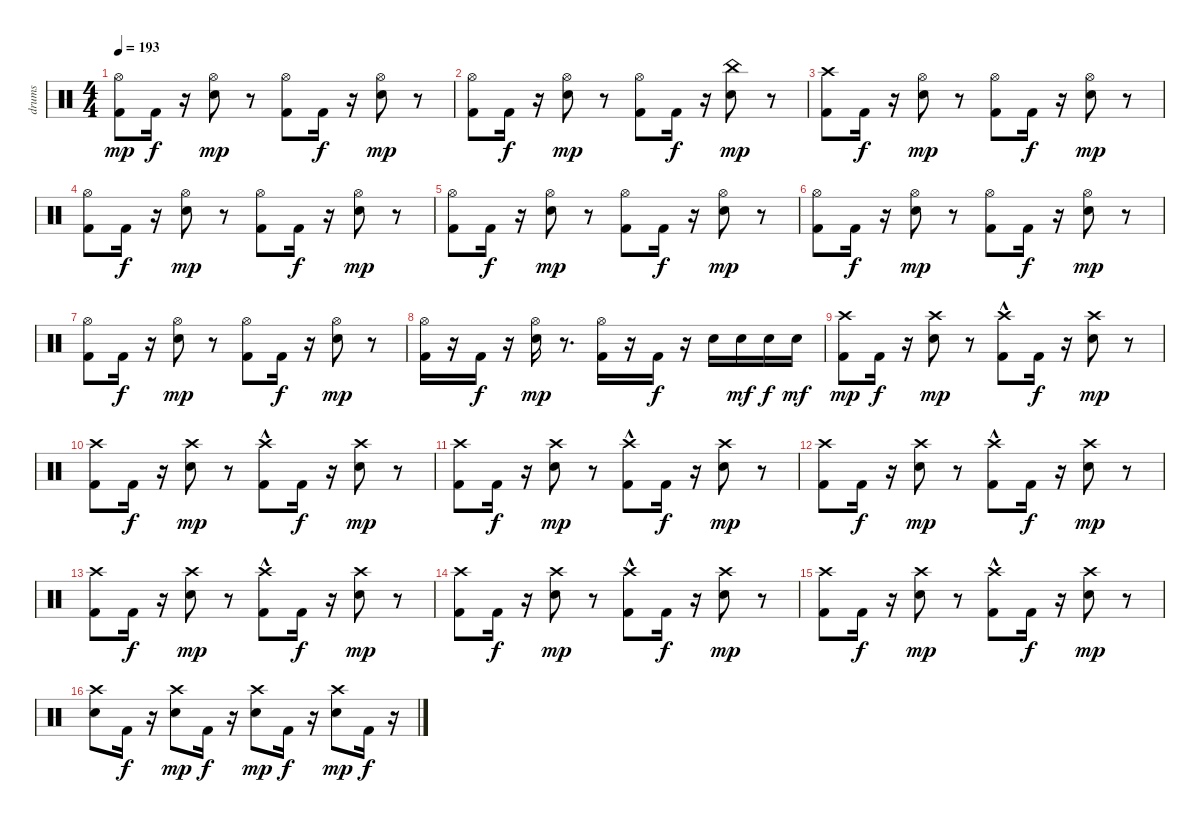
\track ("drums" "drums") {instrument percussion}
\staff {score}
\articulation defaults
\ts (4 4)
\tempo 193
\clef neutral
\ks c
("Kick (hit) 2" "Hi-Hat (open)").8{dy mp} "Kick (hit) 2".16{dy f} r.16 ("Snare (hit) 2" "Hi-Hat (open)").8{dy mp} r.8 ("Kick (hit) 2" "Hi-Hat (open)").8 "Kick (hit) 2".16{dy f} r.16 ("Snare (hit) 2" "Hi-Hat (open)").8{dy mp} r.8 |
("Kick (hit) 2" "Hi-Hat (open)").8 "Kick (hit) 2".16{dy f} r.16 ("Snare (hit) 2" "Hi-Hat (open)").8{dy mp} r.8 ("Kick (hit) 2" "Hi-Hat (open)").8 "Kick (hit) 2".16{dy f} r.16 ("Snare (hit) 2" "China (hit)").8{dy mp} r.8 |
("Kick (hit) 2" "Crash high (hit)").8 "Kick (hit) 2".16{dy f} r.16 ("Snare (hit) 2" "Hi-Hat (open)").8{dy mp} r.8 ("Kick (hit) 2" "Hi-Hat (open)").8 "Kick (hit) 2".16{dy f} r.16 ("Snare (hit) 2" "Hi-Hat (open)").8{dy mp} r.8 |
("Kick (hit) 2" "Hi-Hat (open)").8 "Kick (hit) 2".16{dy f} r.16 ("Snare (hit) 2" "Hi-Hat (open)").8{dy mp} r.8 ("Kick (hit) 2" "Hi-Hat (open)").8 "Kick (hit) 2".16{dy f} r.16 ("Snare (hit) 2" "Hi-Hat (open)").8{dy mp} r.8 |
("Kick (hit) 2" "Hi-Hat (open)").8 "Kick (hit) 2".16{dy f} r.16 ("Snare (hit) 2" "Hi-Hat (open)").8{dy mp} r.8 ("Kick (hit) 2" "Hi-Hat (open)").8 "Kick (hit) 2".16{dy f} r.16 ("Snare (hit) 2" "Hi-Hat (open)").8{dy mp} r.8 |
("Kick (hit) 2" "Hi-Hat (open)").8 "Kick (hit) 2".16{dy f} r.16 ("Snare (hit) 2" "Hi-Hat (open)").8{dy mp} r.8 ("Kick (hit) 2" "Hi-Hat (open)").8 "Kick (hit) 2".16{dy f} r.16 ("Snare (hit) 2" "Hi-Hat (open)").8{dy mp} r.8 |
("Kick (hit) 2" "Hi-Hat (open)").8 "Kick (hit) 2".16{dy f} r.16 ("Snare (hit) 2" "Hi-Hat (open)").8{dy mp} r.8 ("Kick (hit) 2" "Hi-Hat (open)").8 "Kick (hit) 2".16{dy f} r.16 ("Snare (hit) 2" "Hi-Hat (open)").8{dy mp} r.8 |
("Kick (hit) 2" "Hi-Hat (open)").16 r.16 "Kick (hit) 2".16{dy f} r.16 ("Snare (hit) 2" "Hi-Hat (open)").16{dy mp} r.8{d} ("Kick (hit) 2" "Hi-Hat (open)").16 r.16 "Kick (hit) 2".16{dy f} r.16 "Snare (hit) 2".16 "Snare (hit) 2".16{dy mf} "Snare (hit) 2".16{dy f} "Snare (hit) 2".16{dy mf} |
("Kick (hit) 2" "Crash high (hit)").8{dy mp} "Kick (hit) 2".16{dy f} r.16 ("Snare (hit) 2" "Crash high (hit)").8{dy mp} r.8 ("Kick (hit) 2" "Crash high (hit)"{hac}).8 "Kick (hit) 2".16{dy f} r.16 ("Snare (hit) 2" "Crash high (hit)").8{dy mp} r.8 |
("Kick (hit) 2" "Crash high (hit)").8 "Kick (hit) 2".16{dy f} r.16 ("Snare (hit) 2" "Crash high (hit)").8{dy mp} r.8 ("Kick (hit) 2" "Crash high (hit)"{hac}).8 "Kick (hit) 2".16{dy f} r.16 ("Snare (hit) 2" "Crash high (hit)").8{dy mp} r.8 |
("Kick (hit) 2" "Crash high (hit)").8 "Kick (hit) 2".16{dy f} r.16 ("Snare (hit) 2" "Crash high (hit)").8{dy mp} r.8 ("Kick (hit) 2" "Crash high (hit)"{hac}).8 "Kick (hit) 2".16{dy f} r.16 ("Snare (hit) 2" "Crash high (hit)").8{dy mp} r.8 |
("Kick (hit) 2" "Crash high (hit)").8 "Kick (hit) 2".16{dy f} r.16 ("Snare (hit) 2" "Crash high (hit)").8{dy mp} r.8 ("Kick (hit) 2" "Crash high (hit)"{hac}).8 "Kick (hit) 2".16{dy f} r.16 ("Snare (hit) 2" "Crash high (hit)").8{dy mp} r.8 |
("Kick (hit) 2" "Crash high (hit)").8 "Kick (hit) 2".16{dy f} r.16 ("Snare (hit) 2" "Crash high (hit)").8{dy mp} r.8 ("Kick (hit) 2" "Crash high (hit)"{hac}).8 "Kick (hit) 2".16{dy f} r.16 ("Snare (hit) 2" "Crash high (hit)").8{dy mp} r.8 |
("Kick (hit) 2" "Crash high (hit)").8 "Kick (hit) 2".16{dy f} r.16 ("Snare (hit) 2" "Crash high (hit)").8{dy mp} r.8 ("Kick (hit) 2" "Crash high (hit)"{hac}).8 "Kick (hit) 2".16{dy f} r.16 ("Snare (hit) 2" "Crash high (hit)").8{dy mp} r.8 |
("Kick (hit) 2" "Crash high (hit)").8 "Kick (hit) 2".16{dy f} r.16 ("Snare (hit) 2" "Crash high (hit)").8{dy mp} r.8 ("Kick (hit) 2" "Crash high (hit)"{hac}).8 "Kick (hit) 2".16{dy f} r.16 ("Snare (hit) 2" "Crash high (hit)").8{dy mp} r.8 |
("Snare (hit) 2" "Crash high (hit)").8 "Kick (hit) 2".16{dy f} r.16 ("Snare (hit) 2" "Crash high (hit)").8{dy mp} "Kick (hit) 2".16{dy f} r.16 ("Snare (hit) 2" "Crash high (hit)").8{dy mp} "Kick (hit) 2".16{dy f} r.16 ("Snare (hit) 2" "Crash high (hit)").8{dy mp} "Kick (hit) 2".16{dy f} r.16
